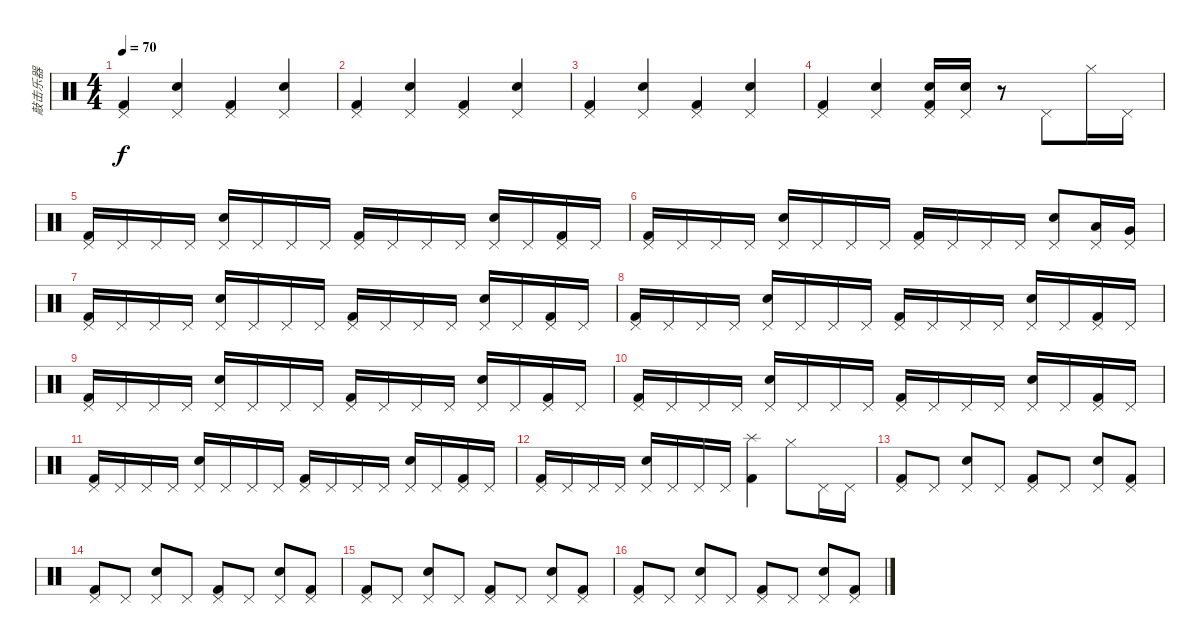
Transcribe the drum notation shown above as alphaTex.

\track ("敲击乐器" "敲击乐器") {instrument percussion}
\staff {score}
\articulation defaults
\ts (4 4)
\tempo 70
\clef neutral
\ks c
("Pedal Hi-Hat (hit)" "Kick (hit) 2").4{dy f} ("Pedal Hi-Hat (hit)" "Electric Snare (hit)").4 ("Pedal Hi-Hat (hit)" "Kick (hit) 2").4 ("Pedal Hi-Hat (hit)" "Electric Snare (hit)").4 |
("Pedal Hi-Hat (hit)" "Kick (hit) 2").4 ("Pedal Hi-Hat (hit)" "Electric Snare (hit)").4 ("Pedal Hi-Hat (hit)" "Kick (hit) 2").4 ("Pedal Hi-Hat (hit)" "Electric Snare (hit)").4 |
("Pedal Hi-Hat (hit)" "Kick (hit) 2").4 ("Pedal Hi-Hat (hit)" "Electric Snare (hit)").4 ("Pedal Hi-Hat (hit)" "Kick (hit) 2").4 ("Pedal Hi-Hat (hit)" "Electric Snare (hit)").4 |
("Pedal Hi-Hat (hit)" "Kick (hit) 2").4 ("Pedal Hi-Hat (hit)" "Electric Snare (hit)").4 ("Pedal Hi-Hat (hit)" "Snare (hit) 2" "Kick (hit) 2").16 ("Pedal Hi-Hat (hit)" "Snare (hit) 2").16 r.8 "Pedal Hi-Hat (hit)".8 "Hi-Hat (closed)".16 "Pedal Hi-Hat (hit)".16 |
("Pedal Hi-Hat (hit)" "Kick (hit) 2").16 "Pedal Hi-Hat (hit)".16 "Pedal Hi-Hat (hit)".16 "Pedal Hi-Hat (hit)".16 ("Pedal Hi-Hat (hit)" "Electric Snare (hit)").16 "Pedal Hi-Hat (hit)".16 "Pedal Hi-Hat (hit)".16 "Pedal Hi-Hat (hit)".16 ("Pedal Hi-Hat (hit)" "Kick (hit) 2").16 "Pedal Hi-Hat (hit)".16 "Pedal Hi-Hat (hit)".16 "Pedal Hi-Hat (hit)".16 ("Pedal Hi-Hat (hit)" "Electric Snare (hit)").16 "Pedal Hi-Hat (hit)".16 ("Pedal Hi-Hat (hit)" "Kick (hit) 2").16 "Pedal Hi-Hat (hit)".16 |
("Pedal Hi-Hat (hit)" "Kick (hit) 2").16 "Pedal Hi-Hat (hit)".16 "Pedal Hi-Hat (hit)".16 "Pedal Hi-Hat (hit)".16 ("Pedal Hi-Hat (hit)" "Electric Snare (hit)").16 "Pedal Hi-Hat (hit)".16 "Pedal Hi-Hat (hit)".16 "Pedal Hi-Hat (hit)".16 ("Pedal Hi-Hat (hit)" "Kick (hit) 2").16 "Pedal Hi-Hat (hit)".16 "Pedal Hi-Hat (hit)".16 "Pedal Hi-Hat (hit)".16 ("Pedal Hi-Hat (hit)" "Electric Snare (hit)").8 ("Pedal Hi-Hat (hit)" "Low Tom (hit)").16 ("Pedal Hi-Hat (hit)" "Very Low Tom (hit)").16 |
("Pedal Hi-Hat (hit)" "Kick (hit) 2").16 "Pedal Hi-Hat (hit)".16 "Pedal Hi-Hat (hit)".16 "Pedal Hi-Hat (hit)".16 ("Pedal Hi-Hat (hit)" "Electric Snare (hit)").16 "Pedal Hi-Hat (hit)".16 "Pedal Hi-Hat (hit)".16 "Pedal Hi-Hat (hit)".16 ("Pedal Hi-Hat (hit)" "Kick (hit) 2").16 "Pedal Hi-Hat (hit)".16 "Pedal Hi-Hat (hit)".16 "Pedal Hi-Hat (hit)".16 ("Pedal Hi-Hat (hit)" "Electric Snare (hit)").16 "Pedal Hi-Hat (hit)".16 ("Pedal Hi-Hat (hit)" "Kick (hit) 2").16 "Pedal Hi-Hat (hit)".16 |
("Pedal Hi-Hat (hit)" "Kick (hit) 2").16 "Pedal Hi-Hat (hit)".16 "Pedal Hi-Hat (hit)".16 "Pedal Hi-Hat (hit)".16 ("Pedal Hi-Hat (hit)" "Electric Snare (hit)").16 "Pedal Hi-Hat (hit)".16 "Pedal Hi-Hat (hit)".16 "Pedal Hi-Hat (hit)".16 ("Pedal Hi-Hat (hit)" "Kick (hit) 2").16 "Pedal Hi-Hat (hit)".16 "Pedal Hi-Hat (hit)".16 "Pedal Hi-Hat (hit)".16 ("Pedal Hi-Hat (hit)" "Electric Snare (hit)").16 "Pedal Hi-Hat (hit)".16 ("Pedal Hi-Hat (hit)" "Kick (hit) 2").16 "Pedal Hi-Hat (hit)".16 |
("Pedal Hi-Hat (hit)" "Kick (hit) 2").16 "Pedal Hi-Hat (hit)".16 "Pedal Hi-Hat (hit)".16 "Pedal Hi-Hat (hit)".16 ("Pedal Hi-Hat (hit)" "Electric Snare (hit)").16 "Pedal Hi-Hat (hit)".16 "Pedal Hi-Hat (hit)".16 "Pedal Hi-Hat (hit)".16 ("Pedal Hi-Hat (hit)" "Kick (hit) 2").16 "Pedal Hi-Hat (hit)".16 "Pedal Hi-Hat (hit)".16 "Pedal Hi-Hat (hit)".16 ("Pedal Hi-Hat (hit)" "Electric Snare (hit)").16 "Pedal Hi-Hat (hit)".16 ("Pedal Hi-Hat (hit)" "Kick (hit) 2").16 "Pedal Hi-Hat (hit)".16 |
("Pedal Hi-Hat (hit)" "Kick (hit) 2").16 "Pedal Hi-Hat (hit)".16 "Pedal Hi-Hat (hit)".16 "Pedal Hi-Hat (hit)".16 ("Pedal Hi-Hat (hit)" "Electric Snare (hit)").16 "Pedal Hi-Hat (hit)".16 "Pedal Hi-Hat (hit)".16 "Pedal Hi-Hat (hit)".16 ("Pedal Hi-Hat (hit)" "Kick (hit) 2").16 "Pedal Hi-Hat (hit)".16 "Pedal Hi-Hat (hit)".16 "Pedal Hi-Hat (hit)".16 ("Pedal Hi-Hat (hit)" "Electric Snare (hit)").16 "Pedal Hi-Hat (hit)".16 ("Pedal Hi-Hat (hit)" "Kick (hit) 2").16 "Pedal Hi-Hat (hit)".16 |
("Pedal Hi-Hat (hit)" "Kick (hit) 2").16 "Pedal Hi-Hat (hit)".16 "Pedal Hi-Hat (hit)".16 "Pedal Hi-Hat (hit)".16 ("Pedal Hi-Hat (hit)" "Electric Snare (hit)").16 "Pedal Hi-Hat (hit)".16 "Pedal Hi-Hat (hit)".16 "Pedal Hi-Hat (hit)".16 ("Pedal Hi-Hat (hit)" "Kick (hit) 2").16 "Pedal Hi-Hat (hit)".16 "Pedal Hi-Hat (hit)".16 "Pedal Hi-Hat (hit)".16 ("Pedal Hi-Hat (hit)" "Electric Snare (hit)").16 "Pedal Hi-Hat (hit)".16 ("Pedal Hi-Hat (hit)" "Kick (hit) 2").16 "Pedal Hi-Hat (hit)".16 |
("Pedal Hi-Hat (hit)" "Kick (hit) 2").16 "Pedal Hi-Hat (hit)".16 "Pedal Hi-Hat (hit)".16 "Pedal Hi-Hat (hit)".16 ("Pedal Hi-Hat (hit)" "Electric Snare (hit)").16 "Pedal Hi-Hat (hit)".16 "Pedal Hi-Hat (hit)".16 "Pedal Hi-Hat (hit)".16 ("Splash (hit)" "Kick (hit) 2").4 "Hi-Hat (closed)".8 "Pedal Hi-Hat (hit)".16 "Pedal Hi-Hat (hit)".16 |
("Pedal Hi-Hat (hit)" "Kick (hit) 2").8 "Pedal Hi-Hat (hit)".8 ("Pedal Hi-Hat (hit)" "Snare (hit) 2").8 "Pedal Hi-Hat (hit)".8 ("Pedal Hi-Hat (hit)" "Kick (hit) 2").8 "Pedal Hi-Hat (hit)".8 ("Pedal Hi-Hat (hit)" "Snare (hit) 2").8 ("Pedal Hi-Hat (hit)" "Kick (hit) 2").8 |
("Pedal Hi-Hat (hit)" "Kick (hit) 2").8 "Pedal Hi-Hat (hit)".8 ("Pedal Hi-Hat (hit)" "Snare (hit) 2").8 "Pedal Hi-Hat (hit)".8 ("Pedal Hi-Hat (hit)" "Kick (hit) 2").8 "Pedal Hi-Hat (hit)".8 ("Pedal Hi-Hat (hit)" "Snare (hit) 2").8 ("Pedal Hi-Hat (hit)" "Kick (hit) 2").8 |
("Pedal Hi-Hat (hit)" "Kick (hit) 2").8 "Pedal Hi-Hat (hit)".8 ("Pedal Hi-Hat (hit)" "Snare (hit) 2").8 "Pedal Hi-Hat (hit)".8 ("Pedal Hi-Hat (hit)" "Kick (hit) 2").8 "Pedal Hi-Hat (hit)".8 ("Pedal Hi-Hat (hit)" "Snare (hit) 2").8 ("Pedal Hi-Hat (hit)" "Kick (hit) 2").8 |
("Pedal Hi-Hat (hit)" "Kick (hit) 2").8 "Pedal Hi-Hat (hit)".8 ("Pedal Hi-Hat (hit)" "Snare (hit) 2").8 "Pedal Hi-Hat (hit)".8 ("Pedal Hi-Hat (hit)" "Kick (hit) 2").8 "Pedal Hi-Hat (hit)".8 ("Pedal Hi-Hat (hit)" "Snare (hit) 2").8 ("Pedal Hi-Hat (hit)" "Kick (hit) 2").8
